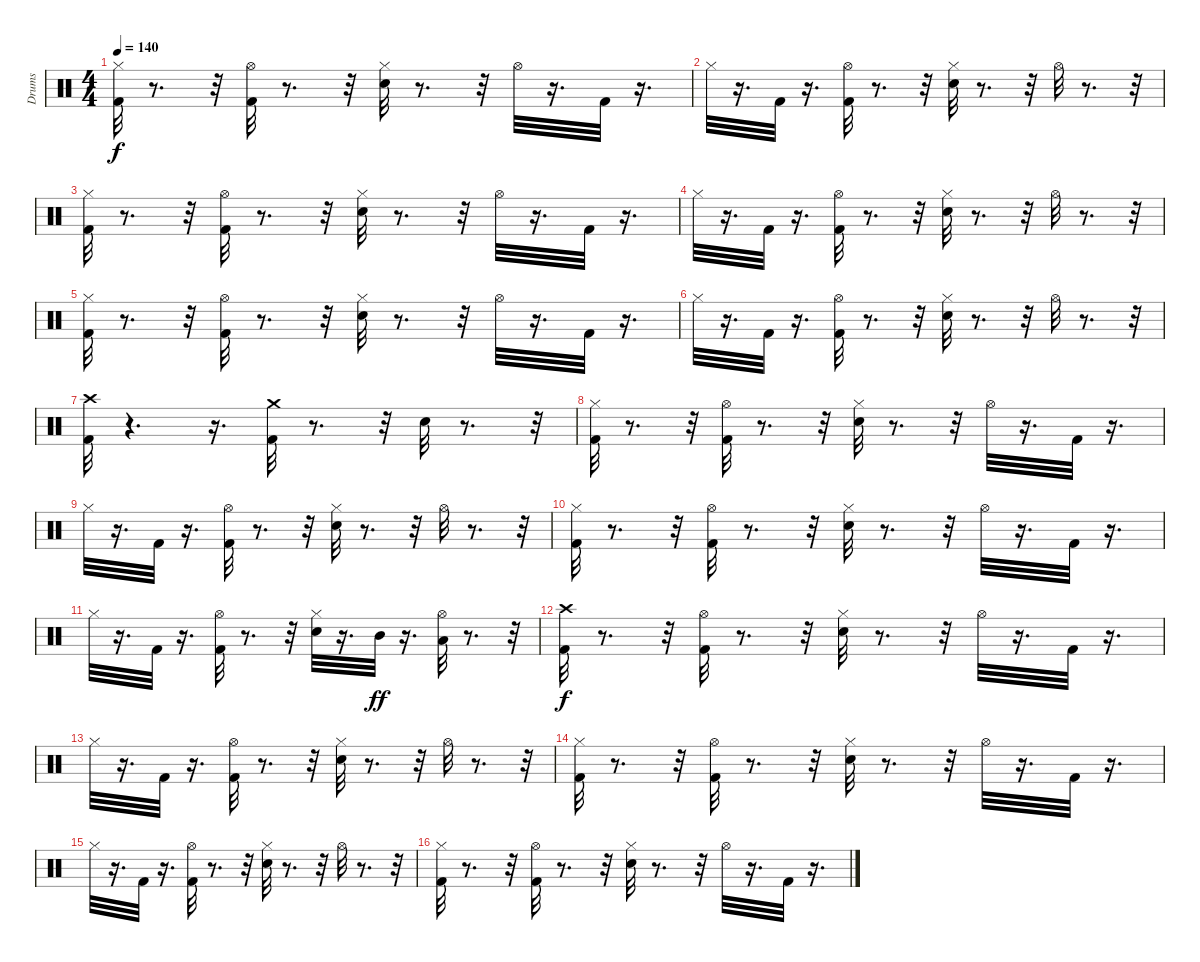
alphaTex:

\track ("Drums" "Drums") {instrument percussion}
\staff {score}
\articulation defaults
\ts (4 4)
\tempo 140
\clef neutral
\ks c
("Kick (hit) 2" "Hi-Hat (closed)").32{dy f} r.8{d} r.32 ("Kick (hit) 2" "Hi-Hat (open)").32 r.8{d} r.32 ("Electric Snare (hit)" "Hi-Hat (closed)").32 r.8{d} r.32 "Hi-Hat (open)".32 r.16{d} "Kick (hit) 2".32 r.16{d} |
"Hi-Hat (closed)".32 r.16{d} "Kick (hit) 2".32 r.16{d} ("Kick (hit) 2" "Hi-Hat (open)").32 r.8{d} r.32 ("Electric Snare (hit)" "Hi-Hat (closed)").32 r.8{d} r.32 "Hi-Hat (open)".32 r.8{d} r.32 |
("Kick (hit) 2" "Hi-Hat (closed)").32 r.8{d} r.32 ("Kick (hit) 2" "Hi-Hat (open)").32 r.8{d} r.32 ("Electric Snare (hit)" "Hi-Hat (closed)").32 r.8{d} r.32 "Hi-Hat (open)".32 r.16{d} "Kick (hit) 2".32 r.16{d} |
"Hi-Hat (closed)".32 r.16{d} "Kick (hit) 2".32 r.16{d} ("Kick (hit) 2" "Hi-Hat (open)").32 r.8{d} r.32 ("Electric Snare (hit)" "Hi-Hat (closed)").32 r.8{d} r.32 "Hi-Hat (open)".32 r.8{d} r.32 |
("Kick (hit) 2" "Hi-Hat (closed)").32 r.8{d} r.32 ("Kick (hit) 2" "Hi-Hat (open)").32 r.8{d} r.32 ("Electric Snare (hit)" "Hi-Hat (closed)").32 r.8{d} r.32 "Hi-Hat (open)".32 r.16{d} "Kick (hit) 2".32 r.16{d} |
"Hi-Hat (closed)".32 r.16{d} "Kick (hit) 2".32 r.16{d} ("Kick (hit) 2" "Hi-Hat (open)").32 r.8{d} r.32 ("Electric Snare (hit)" "Hi-Hat (closed)").32 r.8{d} r.32 "Hi-Hat (open)".32 r.8{d} r.32 |
("Kick (hit) 2" "Crash high (hit)").32 r.4{d} r.16{d} ("Kick (hit) 2" "Crash medium (hit)").32 r.8{d} r.32 "Electric Snare (hit)".32 r.8{d} r.32 |
("Kick (hit) 2" "Hi-Hat (closed)").32 r.8{d} r.32 ("Kick (hit) 2" "Hi-Hat (open)").32 r.8{d} r.32 ("Electric Snare (hit)" "Hi-Hat (closed)").32 r.8{d} r.32 "Hi-Hat (open)".32 r.16{d} "Kick (hit) 2".32 r.16{d} |
"Hi-Hat (closed)".32 r.16{d} "Kick (hit) 2".32 r.16{d} ("Kick (hit) 2" "Hi-Hat (open)").32 r.8{d} r.32 ("Electric Snare (hit)" "Hi-Hat (closed)").32 r.8{d} r.32 "Hi-Hat (open)".32 r.8{d} r.32 |
("Kick (hit) 2" "Hi-Hat (closed)").32 r.8{d} r.32 ("Kick (hit) 2" "Hi-Hat (open)").32 r.8{d} r.32 ("Electric Snare (hit)" "Hi-Hat (closed)").32 r.8{d} r.32 "Hi-Hat (open)".32 r.16{d} "Kick (hit) 2".32 r.16{d} |
"Hi-Hat (closed)".32 r.16{d} "Kick (hit) 2".32 r.16{d} ("Kick (hit) 2" "Hi-Hat (open)").32 r.8{d} r.32 ("Electric Snare (hit)" "Hi-Hat (closed)").32 r.16{d} "Mid Tom (hit)".32{dy ff} r.16{d} ("Low Tom (hit)" "Hi-Hat (open)").32 r.8{d} r.32 |
("Kick (hit) 2" "Crash high (hit)").32{dy f} r.8{d} r.32 ("Kick (hit) 2" "Hi-Hat (open)").32 r.8{d} r.32 ("Electric Snare (hit)" "Hi-Hat (closed)").32 r.8{d} r.32 "Hi-Hat (open)".32 r.16{d} "Kick (hit) 2".32 r.16{d} |
"Hi-Hat (closed)".32 r.16{d} "Kick (hit) 2".32 r.16{d} ("Kick (hit) 2" "Hi-Hat (open)").32 r.8{d} r.32 ("Electric Snare (hit)" "Hi-Hat (closed)").32 r.8{d} r.32 "Hi-Hat (open)".32 r.8{d} r.32 |
("Kick (hit) 2" "Hi-Hat (closed)").32 r.8{d} r.32 ("Kick (hit) 2" "Hi-Hat (open)").32 r.8{d} r.32 ("Electric Snare (hit)" "Hi-Hat (closed)").32 r.8{d} r.32 "Hi-Hat (open)".32 r.16{d} "Kick (hit) 2".32 r.16{d} |
"Hi-Hat (closed)".32 r.16{d} "Kick (hit) 2".32 r.16{d} ("Kick (hit) 2" "Hi-Hat (open)").32 r.8{d} r.32 ("Electric Snare (hit)" "Hi-Hat (closed)").32 r.8{d} r.32 "Hi-Hat (open)".32 r.8{d} r.32 |
("Kick (hit) 2" "Hi-Hat (closed)").32 r.8{d} r.32 ("Kick (hit) 2" "Hi-Hat (open)").32 r.8{d} r.32 ("Electric Snare (hit)" "Hi-Hat (closed)").32 r.8{d} r.32 "Hi-Hat (open)".32 r.16{d} "Kick (hit) 2".32 r.16{d}
